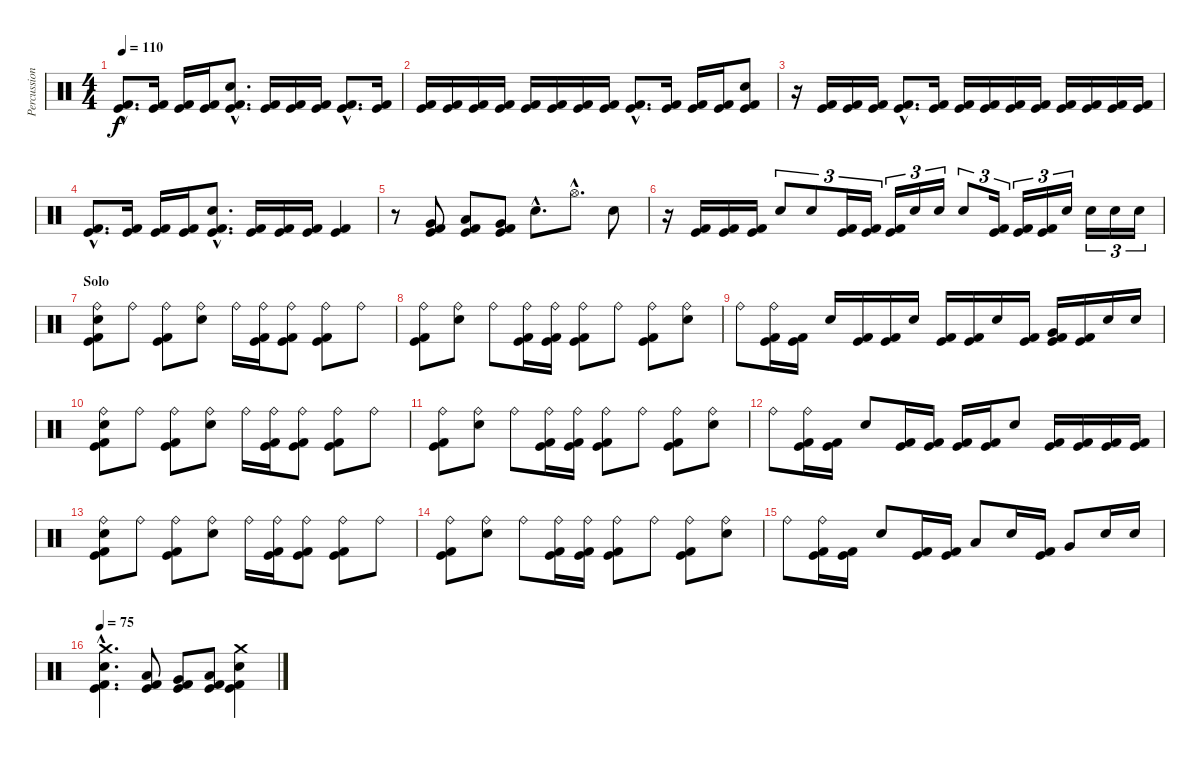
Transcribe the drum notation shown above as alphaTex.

\track ("Percussion" "Percussion") {instrument percussion}
\staff {score}
\articulation defaults
\ts (4 4)
\tempo 110
\clef neutral
\ks c
("Kick (hit)"{hac} "Kick (hit) 2"{hac}).8{d dy f} ("Kick (hit)" "Kick (hit) 2").16 ("Kick (hit)" "Kick (hit) 2").16 ("Kick (hit)" "Kick (hit) 2").16 ("Electric Snare (hit)"{hac} "Kick (hit)"{hac} "Kick (hit) 2"{hac}).8{d} ("Kick (hit)" "Kick (hit) 2").16 ("Kick (hit)" "Kick (hit) 2").16 ("Kick (hit)" "Kick (hit) 2").16 ("Kick (hit)"{hac} "Kick (hit) 2"{hac}).8{d} ("Kick (hit)" "Kick (hit) 2").16 |
("Kick (hit)" "Kick (hit) 2").16 ("Kick (hit)" "Kick (hit) 2").16 ("Kick (hit)" "Kick (hit) 2").16 ("Kick (hit)" "Kick (hit) 2").16 ("Kick (hit)" "Kick (hit) 2").16 ("Kick (hit)" "Kick (hit) 2").16 ("Kick (hit)" "Kick (hit) 2").16 ("Kick (hit)" "Kick (hit) 2").16 ("Kick (hit)"{hac} "Kick (hit) 2"{hac}).8{d} ("Kick (hit)" "Kick (hit) 2").16 ("Kick (hit)" "Kick (hit) 2").16 ("Kick (hit)" "Kick (hit) 2").16 ("Electric Snare (hit)" "Kick (hit)" "Kick (hit) 2").8 |
r.16 ("Kick (hit)" "Kick (hit) 2").16 ("Kick (hit)" "Kick (hit) 2").16 ("Kick (hit)" "Kick (hit) 2").16 ("Kick (hit)"{hac} "Kick (hit) 2"{hac}).8{d} ("Kick (hit)" "Kick (hit) 2").16 ("Kick (hit)" "Kick (hit) 2").16 ("Kick (hit)" "Kick (hit) 2").16 ("Kick (hit)" "Kick (hit) 2").16 ("Kick (hit)" "Kick (hit) 2").16 ("Kick (hit)" "Kick (hit) 2").16 ("Kick (hit)" "Kick (hit) 2").16 ("Kick (hit)" "Kick (hit) 2").16 ("Kick (hit)" "Kick (hit) 2").16 |
("Kick (hit)"{hac} "Kick (hit) 2"{hac}).8{d} ("Kick (hit)" "Kick (hit) 2").16 ("Kick (hit)" "Kick (hit) 2").16 ("Kick (hit)" "Kick (hit) 2").16 ("Electric Snare (hit)"{hac} "Kick (hit)"{hac} "Kick (hit) 2"{hac}).8{d} ("Kick (hit)" "Kick (hit) 2").16 ("Kick (hit)" "Kick (hit) 2").16 ("Kick (hit)" "Kick (hit) 2").16 ("Kick (hit)" "Kick (hit) 2").4 |
r.8 ("Very Low Tom (hit)" "Kick (hit) 2" "Kick (hit)").8 ("Low Tom (hit)" "Kick (hit) 2" "Kick (hit)").8 ("Very Low Tom (hit)" "Kick (hit) 2" "Kick (hit)").8 "Electric Snare (hit)"{hac}.8{d} "Hi-Hat (open)"{hac}.8{d} "Electric Snare (hit)".8 |
r.16 ("Kick (hit) 2" "Kick (hit)").16 ("Kick (hit) 2" "Kick (hit)").16 ("Kick (hit) 2" "Kick (hit)").16 "Electric Snare (hit)".8{tu (3 2)} "Electric Snare (hit)".8{tu (3 2)} ("Kick (hit) 2" "Kick (hit)").16{tu (3 2)} ("Kick (hit) 2" "Kick (hit)").16{tu (3 2)} ("Kick (hit) 2" "Kick (hit)").16{tu (3 2)} "Electric Snare (hit)".16{tu (3 2)} "Electric Snare (hit)".16{tu (3 2)} "Electric Snare (hit)".8{tu (3 2)} ("Kick (hit) 2" "Kick (hit)").16{tu (3 2)} ("Kick (hit) 2" "Kick (hit)").16{tu (3 2)} ("Kick (hit) 2" "Kick (hit)").16{tu (3 2)} "Electric Snare (hit)".16{tu (3 2)} "Electric Snare (hit)".16{tu (3 2)} "Electric Snare (hit)".16{tu (3 2)} "Electric Snare (hit)".16{tu (3 2)} |
\section ("" "Solo")
("Ride (bell)" "Electric Snare (hit)" "Kick (hit) 2" "Kick (hit)").8 "Ride (bell)".8 ("Ride (bell)" "Kick (hit) 2" "Kick (hit)").8 ("Ride (bell)" "Electric Snare (hit)").8 "Ride (bell)".16 ("Ride (bell)" "Kick (hit) 2" "Kick (hit)").16 ("Ride (bell)" "Kick (hit) 2" "Kick (hit)").8 ("Ride (bell)" "Kick (hit)" "Kick (hit) 2").8 "Ride (bell)".8 |
("Ride (bell)" "Kick (hit) 2" "Kick (hit)").8 ("Ride (bell)" "Electric Snare (hit)").8 "Ride (bell)".8 ("Ride (bell)" "Kick (hit) 2" "Kick (hit)").16 ("Ride (bell)" "Kick (hit) 2" "Kick (hit)").16 ("Ride (bell)" "Kick (hit) 2" "Kick (hit)").8 "Ride (bell)".8 ("Ride (bell)" "Kick (hit) 2" "Kick (hit)").8 ("Ride (bell)" "Electric Snare (hit)").8 |
"Ride (bell)".8 ("Ride (bell)" "Kick (hit) 2" "Kick (hit)").16 ("Kick (hit) 2" "Kick (hit)").16 "Electric Snare (hit)".16 ("Kick (hit) 2" "Kick (hit)").16 ("Kick (hit) 2" "Kick (hit)").16 "Electric Snare (hit)".16 ("Kick (hit) 2" "Kick (hit)").16 ("Kick (hit) 2" "Kick (hit)").16 "Electric Snare (hit)".16 ("Kick (hit) 2" "Kick (hit)").16 ("Very Low Tom (hit)" "Kick (hit) 2" "Kick (hit)").16 ("Kick (hit) 2" "Kick (hit)").16 "Electric Snare (hit)".16 "Electric Snare (hit)".16 |
("Ride (bell)" "Electric Snare (hit)" "Kick (hit) 2" "Kick (hit)").8 "Ride (bell)".8 ("Ride (bell)" "Kick (hit) 2" "Kick (hit)").8 ("Ride (bell)" "Electric Snare (hit)").8 "Ride (bell)".16 ("Ride (bell)" "Kick (hit) 2" "Kick (hit)").16 ("Ride (bell)" "Kick (hit) 2" "Kick (hit)").8 ("Ride (bell)" "Kick (hit)" "Kick (hit) 2").8 "Ride (bell)".8 |
("Ride (bell)" "Kick (hit) 2" "Kick (hit)").8 ("Ride (bell)" "Electric Snare (hit)").8 "Ride (bell)".8 ("Ride (bell)" "Kick (hit) 2" "Kick (hit)").16 ("Ride (bell)" "Kick (hit) 2" "Kick (hit)").16 ("Ride (bell)" "Kick (hit) 2" "Kick (hit)").8 "Ride (bell)".8 ("Ride (bell)" "Kick (hit) 2" "Kick (hit)").8 ("Ride (bell)" "Electric Snare (hit)").8 |
"Ride (bell)".8 ("Ride (bell)" "Kick (hit) 2" "Kick (hit)").16 ("Kick (hit)" "Kick (hit) 2").16 "Electric Snare (hit)".8 ("Kick (hit) 2" "Kick (hit)").16 ("Kick (hit) 2" "Kick (hit)").16 ("Kick (hit) 2" "Kick (hit)").16 ("Kick (hit) 2" "Kick (hit)").16 "Electric Snare (hit)".8 ("Kick (hit) 2" "Kick (hit)").16 ("Kick (hit) 2" "Kick (hit)").16 ("Kick (hit) 2" "Kick (hit)").16 ("Kick (hit) 2" "Kick (hit)").16 |
("Ride (bell)" "Electric Snare (hit)" "Kick (hit) 2" "Kick (hit)").8 "Ride (bell)".8 ("Ride (bell)" "Kick (hit) 2" "Kick (hit)").8 ("Ride (bell)" "Electric Snare (hit)").8 "Ride (bell)".16 ("Ride (bell)" "Kick (hit) 2" "Kick (hit)").16 ("Ride (bell)" "Kick (hit) 2" "Kick (hit)").8 ("Ride (bell)" "Kick (hit)" "Kick (hit) 2").8 "Ride (bell)".8 |
("Ride (bell)" "Kick (hit) 2" "Kick (hit)").8 ("Ride (bell)" "Electric Snare (hit)").8 "Ride (bell)".8 ("Ride (bell)" "Kick (hit) 2" "Kick (hit)").16 ("Ride (bell)" "Kick (hit) 2" "Kick (hit)").16 ("Ride (bell)" "Kick (hit) 2" "Kick (hit)").8 "Ride (bell)".8 ("Ride (bell)" "Kick (hit) 2" "Kick (hit)").8 ("Ride (bell)" "Electric Snare (hit)").8 |
"Ride (bell)".8 ("Ride (bell)" "Kick (hit) 2" "Kick (hit)").16 ("Kick (hit) 2" "Kick (hit)").16 "Electric Snare (hit)".8 ("Kick (hit) 2" "Kick (hit)").16 ("Kick (hit) 2" "Kick (hit)").16 "Low Tom (hit)".8 "Electric Snare (hit)".16 ("Kick (hit) 2" "Kick (hit)").16 "Very Low Tom (hit)".8 "Electric Snare (hit)".16 "Electric Snare (hit)".16 |
\tempo 75
("Crash medium (hit)"{hac} "Electric Snare (hit)"{hac} "Kick (hit) 2"{hac} "Kick (hit)"{hac}).4{d} ("Low Tom (hit)" "Kick (hit) 2" "Kick (hit)").8 ("Very Low Tom (hit)" "Kick (hit) 2" "Kick (hit)").8 ("Low Floor Tom (hit)" "Kick (hit) 2" "Kick (hit)").8 ("Crash medium (hit)" "Electric Snare (hit)" "Kick (hit) 2" "Kick (hit)").4
